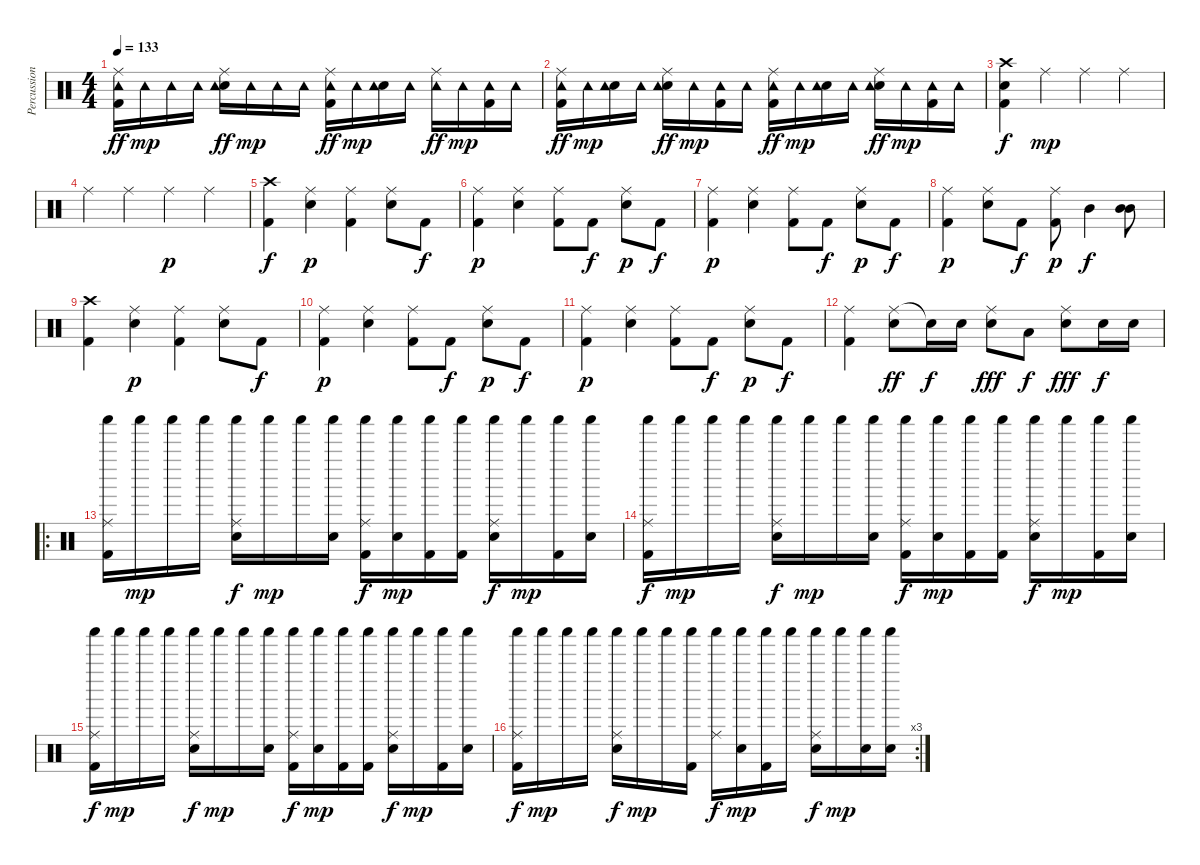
\track ("Percussion" "Percussion") {instrument percussion}
\staff {score}
\articulation defaults
\ts (4 4)
\tempo 133
\clef neutral
\ks c
("Ride (middle)" "Kick (hit) 2" "Tambourine (hit)").16{dy ff} "Tambourine (hit)".16{dy mp} "Tambourine (hit)".16 "Tambourine (hit)".16 ("Ride (middle)" "Electric Snare (hit)" "Tambourine (hit)").16{dy ff} "Tambourine (hit)".16{dy mp} "Tambourine (hit)".16 "Tambourine (hit)".16 ("Ride (middle)" "Kick (hit) 2" "Tambourine (hit)").16{dy ff} "Tambourine (hit)".16{dy mp} ("Electric Snare (hit)" "Tambourine (hit)").16 "Tambourine (hit)".16 ("Ride (middle)" "Tambourine (hit)").16{dy ff} "Tambourine (hit)".16{dy mp} ("Kick (hit) 2" "Tambourine (hit)").16 "Tambourine (hit)".16 |
("Ride (middle)" "Kick (hit) 2" "Tambourine (hit)").16{dy ff} "Tambourine (hit)".16{dy mp} ("Electric Snare (hit)" "Tambourine (hit)").16 "Tambourine (hit)".16 ("Ride (middle)" "Electric Snare (hit)" "Tambourine (hit)").16{dy ff} "Tambourine (hit)".16{dy mp} ("Kick (hit) 2" "Tambourine (hit)").16 "Tambourine (hit)".16 ("Ride (middle)" "Kick (hit) 2" "Tambourine (hit)").16{dy ff} "Tambourine (hit)".16{dy mp} ("Electric Snare (hit)" "Tambourine (hit)").16 "Tambourine (hit)".16 ("Ride (middle)" "Electric Snare (hit)" "Tambourine (hit)").16{dy ff} "Tambourine (hit)".16{dy mp} ("Kick (hit) 2" "Tambourine (hit)").16 "Tambourine (hit)".16 |
("Crash high (hit)" "Kick (hit) 2" "Electric Snare (hit)").4{dy f} "Ride (middle)".4{dy mp} "Ride (middle)".4 "Ride (middle)".4 |
"Ride (middle)".4 "Ride (middle)".4 "Ride (middle)".4{dy p} "Ride (middle)".4 |
("Crash high (hit)" "Kick (hit) 2").4{dy f} ("Ride (middle)" "Electric Snare (hit)").4{dy p} ("Ride (middle)" "Kick (hit) 2").4 ("Ride (middle)" "Electric Snare (hit)").8 "Kick (hit) 2".8{dy f} |
("Ride (middle)" "Kick (hit) 2").4{dy p} ("Ride (middle)" "Electric Snare (hit)").4 ("Ride (middle)" "Kick (hit) 2").8 "Kick (hit) 2".8{dy f} ("Ride (middle)" "Electric Snare (hit)").8{dy p} "Kick (hit) 2".8{dy f} |
("Ride (middle)" "Kick (hit) 2").4{dy p} ("Ride (middle)" "Electric Snare (hit)").4 ("Ride (middle)" "Kick (hit) 2").8 "Kick (hit) 2".8{dy f} ("Ride (middle)" "Electric Snare (hit)").8{dy p} "Kick (hit) 2".8{dy f} |
("Ride (middle)" "Kick (hit) 2").4{dy p} ("Ride (middle)" "Electric Snare (hit)").8 "Kick (hit) 2".8{dy f} ("Ride (middle)" "Kick (hit) 2").8{dy p} "Mid Tom (hit)".4{dy f} ("Mid Tom (hit)" "Mid Tom (hit)").8{bd 480} |
("Crash high (hit)" "Kick (hit) 2").4 ("Ride (middle)" "Electric Snare (hit)").4{dy p} ("Ride (middle)" "Kick (hit) 2").4 ("Ride (middle)" "Electric Snare (hit)").8 "Kick (hit) 2".8{dy f} |
("Ride (middle)" "Kick (hit) 2").4{dy p} ("Ride (middle)" "Electric Snare (hit)").4 ("Ride (middle)" "Kick (hit) 2").8 "Kick (hit) 2".8{dy f} ("Ride (middle)" "Electric Snare (hit)").8{dy p} "Kick (hit) 2".8{dy f} |
("Ride (middle)" "Kick (hit) 2").4{dy p} ("Ride (middle)" "Electric Snare (hit)").4 ("Ride (middle)" "Kick (hit) 2").8 "Kick (hit) 2".8{dy f} ("Ride (middle)" "Electric Snare (hit)").8{dy p} "Kick (hit) 2".8{dy f} |
("Ride (middle)" "Kick (hit) 2").4 ("Ride (middle)" "Electric Snare (hit)").8{dy ff} "Snare (hit)"{t}.16{dy f} "Electric Snare (hit)".16 ("Ride (middle)" "Electric Snare (hit)").8{dy fff} "Low Tom (hit)".8{dy f} ("Ride (middle)" "Electric Snare (hit)").8{dy fff} "Electric Snare (hit)".16{dy f} "Electric Snare (hit)".16 |
\ro
("Ride (middle)" "Kick (hit) 2" "Shaker (hit)").16 "Shaker (hit)".16{dy mp} "Shaker (hit)".16 "Shaker (hit)".16 ("Ride (middle)" "Electric Snare (hit)" "Shaker (hit)").16{dy f} "Shaker (hit)".16{dy mp} "Shaker (hit)".16 ("Electric Snare (hit)" "Shaker (hit)").16 ("Ride (middle)" "Kick (hit) 2" "Shaker (hit)").16{dy f} ("Electric Snare (hit)" "Shaker (hit)").16{dy mp} ("Kick (hit) 2" "Shaker (hit)").16 ("Kick (hit) 2" "Shaker (hit)").16 ("Ride (middle)" "Electric Snare (hit)" "Shaker (hit)").16{dy f} "Shaker (hit)".16{dy mp} ("Kick (hit) 2" "Shaker (hit)").16 ("Electric Snare (hit)" "Shaker (hit)").16 |
("Ride (middle)" "Kick (hit) 2" "Shaker (hit)").16{dy f} "Shaker (hit)".16{dy mp} "Shaker (hit)".16 "Shaker (hit)".16 ("Ride (middle)" "Electric Snare (hit)" "Shaker (hit)").16{dy f} "Shaker (hit)".16{dy mp} "Shaker (hit)".16 ("Electric Snare (hit)" "Shaker (hit)").16 ("Ride (middle)" "Kick (hit) 2" "Shaker (hit)").16{dy f} ("Electric Snare (hit)" "Shaker (hit)").16{dy mp} ("Kick (hit) 2" "Shaker (hit)").16 ("Kick (hit) 2" "Shaker (hit)").16 ("Ride (middle)" "Electric Snare (hit)" "Shaker (hit)").16{dy f} "Shaker (hit)".16{dy mp} ("Kick (hit) 2" "Shaker (hit)").16 ("Electric Snare (hit)" "Shaker (hit)").16 |
("Ride (middle)" "Kick (hit) 2" "Shaker (hit)").16{dy f} "Shaker (hit)".16{dy mp} "Shaker (hit)".16 "Shaker (hit)".16 ("Ride (middle)" "Electric Snare (hit)" "Shaker (hit)").16{dy f} "Shaker (hit)".16{dy mp} "Shaker (hit)".16 ("Electric Snare (hit)" "Shaker (hit)").16 ("Ride (middle)" "Kick (hit) 2" "Shaker (hit)").16{dy f} ("Electric Snare (hit)" "Shaker (hit)").16{dy mp} ("Kick (hit) 2" "Shaker (hit)").16 ("Kick (hit) 2" "Shaker (hit)").16 ("Ride (middle)" "Electric Snare (hit)" "Shaker (hit)").16{dy f} "Shaker (hit)".16{dy mp} ("Kick (hit) 2" "Shaker (hit)").16 ("Electric Snare (hit)" "Shaker (hit)").16 |
\rc 3
("Ride (middle)" "Kick (hit) 2" "Shaker (hit)").16{dy f} "Shaker (hit)".16{dy mp} "Shaker (hit)".16 "Shaker (hit)".16 ("Ride (middle)" "Electric Snare (hit)" "Shaker (hit)").16{dy f} "Shaker (hit)".16{dy mp} "Shaker (hit)".16 ("Kick (hit) 2" "Shaker (hit)").16 ("Ride (middle)" "Shaker (hit)").16{dy f} ("Electric Snare (hit)" "Shaker (hit)").16{dy mp} ("Kick (hit) 2" "Shaker (hit)").16 "Shaker (hit)".16 ("Ride (middle)" "Electric Snare (hit)" "Shaker (hit)").16{dy f} "Shaker (hit)".16{dy mp} ("Electric Snare (hit)" "Shaker (hit)").16 ("Electric Snare (hit)" "Shaker (hit)").16
